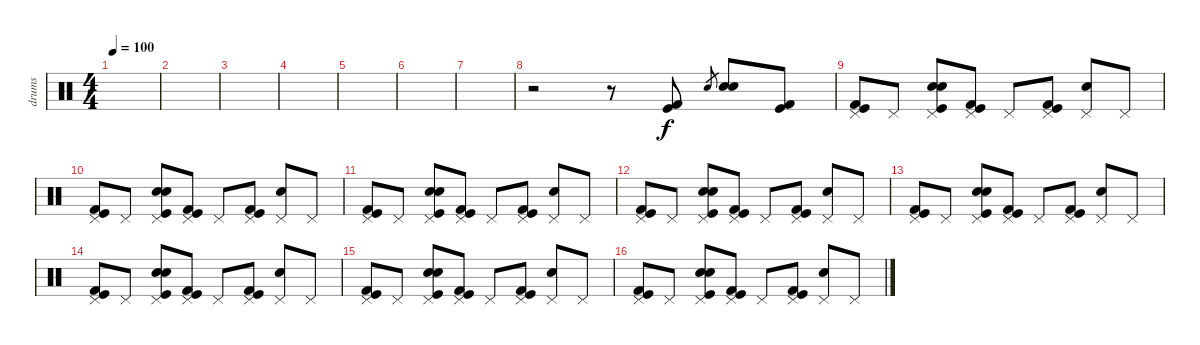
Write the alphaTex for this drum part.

\track ("drums" "drums") {instrument percussion}
\staff {score}
\articulation defaults
\ts (4 4)
\tempo 100
\clef neutral
\ks c
|
|
|
|
|
|
|
r.2 r.8 ("Kick (hit) 2" "Kick (hit)").8 "Electric Snare (hit)"{sl}.8{gr} ("Electric Snare (hit)" "Snare (hit) 2").8 ("Kick (hit)" "Kick (hit) 2").8 |
("Pedal Hi-Hat (hit)" "Kick (hit) 2" "Kick (hit)").8 "Pedal Hi-Hat (hit)".8 ("Pedal Hi-Hat (hit)" "Electric Snare (hit)" "Snare (hit) 2" "Kick (hit)").8 ("Pedal Hi-Hat (hit)" "Kick (hit) 2" "Kick (hit)").8 "Pedal Hi-Hat (hit)".8 ("Pedal Hi-Hat (hit)" "Kick (hit) 2" "Kick (hit)").8 ("Pedal Hi-Hat (hit)" "Snare (hit) 2").8 "Pedal Hi-Hat (hit)".8 |
("Pedal Hi-Hat (hit)" "Kick (hit) 2" "Kick (hit)").8 "Pedal Hi-Hat (hit)".8 ("Pedal Hi-Hat (hit)" "Electric Snare (hit)" "Snare (hit) 2" "Kick (hit)").8 ("Pedal Hi-Hat (hit)" "Kick (hit) 2" "Kick (hit)").8 "Pedal Hi-Hat (hit)".8 ("Pedal Hi-Hat (hit)" "Kick (hit) 2" "Kick (hit)").8 ("Pedal Hi-Hat (hit)" "Snare (hit) 2").8 "Pedal Hi-Hat (hit)".8 |
("Pedal Hi-Hat (hit)" "Kick (hit) 2" "Kick (hit)").8 "Pedal Hi-Hat (hit)".8 ("Pedal Hi-Hat (hit)" "Electric Snare (hit)" "Snare (hit) 2" "Kick (hit)").8 ("Pedal Hi-Hat (hit)" "Kick (hit) 2" "Kick (hit)").8 "Pedal Hi-Hat (hit)".8 ("Pedal Hi-Hat (hit)" "Kick (hit) 2" "Kick (hit)").8 ("Pedal Hi-Hat (hit)" "Snare (hit) 2").8 "Pedal Hi-Hat (hit)".8 |
("Pedal Hi-Hat (hit)" "Kick (hit) 2" "Kick (hit)").8 "Pedal Hi-Hat (hit)".8 ("Pedal Hi-Hat (hit)" "Electric Snare (hit)" "Snare (hit) 2" "Kick (hit)").8 ("Pedal Hi-Hat (hit)" "Kick (hit) 2" "Kick (hit)").8 "Pedal Hi-Hat (hit)".8 ("Pedal Hi-Hat (hit)" "Kick (hit) 2" "Kick (hit)").8 ("Pedal Hi-Hat (hit)" "Snare (hit) 2").8 "Pedal Hi-Hat (hit)".8 |
("Pedal Hi-Hat (hit)" "Kick (hit) 2" "Kick (hit)").8 "Pedal Hi-Hat (hit)".8 ("Pedal Hi-Hat (hit)" "Electric Snare (hit)" "Snare (hit) 2" "Kick (hit)").8 ("Pedal Hi-Hat (hit)" "Kick (hit) 2" "Kick (hit)").8 "Pedal Hi-Hat (hit)".8 ("Pedal Hi-Hat (hit)" "Kick (hit) 2" "Kick (hit)").8 ("Pedal Hi-Hat (hit)" "Snare (hit) 2").8 "Pedal Hi-Hat (hit)".8 |
("Pedal Hi-Hat (hit)" "Kick (hit) 2" "Kick (hit)").8 "Pedal Hi-Hat (hit)".8 ("Pedal Hi-Hat (hit)" "Electric Snare (hit)" "Snare (hit) 2" "Kick (hit)").8 ("Pedal Hi-Hat (hit)" "Kick (hit) 2" "Kick (hit)").8 "Pedal Hi-Hat (hit)".8 ("Pedal Hi-Hat (hit)" "Kick (hit) 2" "Kick (hit)").8 ("Pedal Hi-Hat (hit)" "Snare (hit) 2").8 "Pedal Hi-Hat (hit)".8 |
("Pedal Hi-Hat (hit)" "Kick (hit) 2" "Kick (hit)").8 "Pedal Hi-Hat (hit)".8 ("Pedal Hi-Hat (hit)" "Electric Snare (hit)" "Snare (hit) 2" "Kick (hit)").8 ("Pedal Hi-Hat (hit)" "Kick (hit) 2" "Kick (hit)").8 "Pedal Hi-Hat (hit)".8 ("Pedal Hi-Hat (hit)" "Kick (hit) 2" "Kick (hit)").8 ("Pedal Hi-Hat (hit)" "Snare (hit) 2").8 "Pedal Hi-Hat (hit)".8 |
("Pedal Hi-Hat (hit)" "Kick (hit) 2" "Kick (hit)").8 "Pedal Hi-Hat (hit)".8 ("Pedal Hi-Hat (hit)" "Electric Snare (hit)" "Snare (hit) 2" "Kick (hit)").8 ("Pedal Hi-Hat (hit)" "Kick (hit) 2" "Kick (hit)").8 "Pedal Hi-Hat (hit)".8 ("Pedal Hi-Hat (hit)" "Kick (hit) 2" "Kick (hit)").8 ("Pedal Hi-Hat (hit)" "Snare (hit) 2").8 "Pedal Hi-Hat (hit)".8
